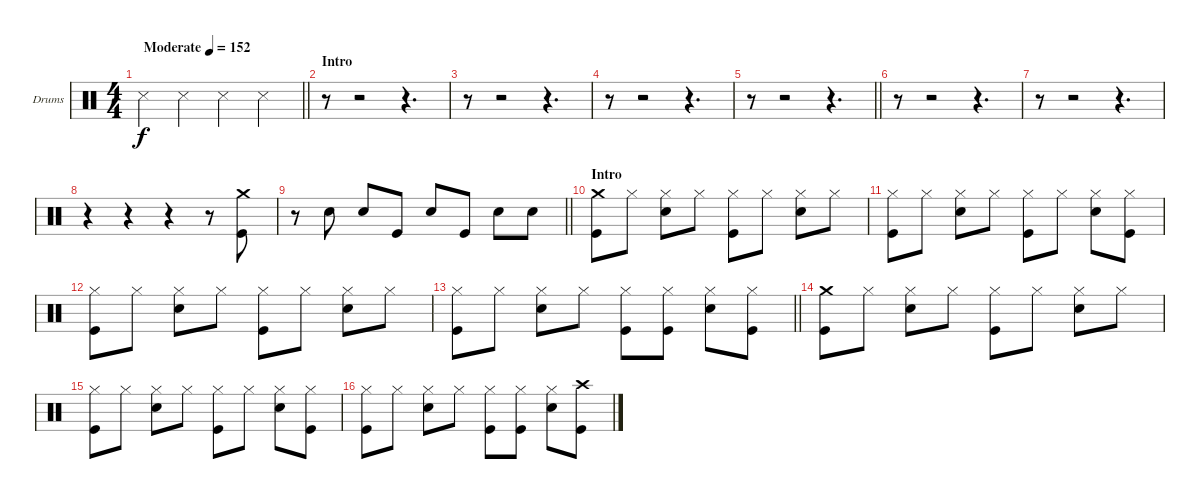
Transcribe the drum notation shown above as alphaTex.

\bracketExtendMode groupsimilarinstruments
\firstSystemTrackNameOrientation horizontal
\otherSystemsTrackNameOrientation horizontal
\track ("Drumkit" "Drums") {instrument percussion}
\staff {score}
\articulation defaults
\ts (4 4)
\beaming (8 2 2 2 2)
\tempo (152 "Moderate")
\clef neutral
\barLineRight lightlight
\ks c "Snare (side stick) 3".4{dy f} "Snare (side stick) 3".4 "Snare (side stick) 3".4 "Snare (side stick) 3".4
|
\section ("" "Intro")
r.8 r.2 r.4{d} |
r.8 r.2 r.4{d} |
r.8 r.2 r.4{d} |
\barLineRight lightlight
r.8 r.2 r.4{d} |
r.8 r.2 r.4{d} |
r.8 r.2 r.4{d} |
r.4 r.4 r.4 r.8 ("Crash medium (hit)" "Kick (hit)").8 |
\barLineRight lightlight
r.8 "Snare (hit) 2".8 "Snare (hit) 2".8 "Kick (hit)".8 "Snare (hit) 2".8 "Kick (hit)".8 "Snare (hit) 2".8 "Snare (hit) 2".8 |
\section ("" "Intro")
("Crash medium (hit)" "Kick (hit)").8 "Hi-Hat (closed)".8 ("Hi-Hat (closed)" "Snare (hit) 2").8 "Hi-Hat (closed)".8 ("Hi-Hat (closed)" "Kick (hit)").8 "Hi-Hat (closed)".8 ("Hi-Hat (closed)" "Snare (hit) 2").8 "Hi-Hat (closed)".8 |
("Hi-Hat (closed)" "Kick (hit)").8 "Hi-Hat (closed)".8 ("Hi-Hat (closed)" "Snare (hit) 2").8 "Hi-Hat (closed)".8 ("Hi-Hat (closed)" "Kick (hit)").8 "Hi-Hat (closed)".8 ("Hi-Hat (closed)" "Snare (hit) 2").8 ("Hi-Hat (closed)" "Kick (hit)").8 |
("Hi-Hat (closed)" "Kick (hit)").8 "Hi-Hat (closed)".8 ("Hi-Hat (closed)" "Snare (hit) 2").8 "Hi-Hat (closed)".8 ("Hi-Hat (closed)" "Kick (hit)").8 "Hi-Hat (closed)".8 ("Hi-Hat (closed)" "Snare (hit) 2").8 "Hi-Hat (closed)".8 |
\barLineRight lightlight
("Hi-Hat (closed)" "Kick (hit)").8 "Hi-Hat (closed)".8 ("Hi-Hat (closed)" "Snare (hit) 2").8 "Hi-Hat (closed)".8 ("Hi-Hat (closed)" "Kick (hit)").8 ("Hi-Hat (closed)" "Kick (hit)").8 ("Hi-Hat (closed)" "Snare (hit) 2").8 ("Hi-Hat (closed)" "Kick (hit)").8 |
("Crash medium (hit)" "Kick (hit)").8 "Hi-Hat (closed)".8 ("Hi-Hat (closed)" "Snare (hit) 2").8 "Hi-Hat (closed)".8 ("Hi-Hat (closed)" "Kick (hit)").8 "Hi-Hat (closed)".8 ("Hi-Hat (closed)" "Snare (hit) 2").8 "Hi-Hat (closed)".8 |
("Hi-Hat (closed)" "Kick (hit)").8 "Hi-Hat (closed)".8 ("Hi-Hat (closed)" "Snare (hit) 2").8 "Hi-Hat (closed)".8 ("Hi-Hat (closed)" "Kick (hit)").8 "Hi-Hat (closed)".8 ("Hi-Hat (closed)" "Snare (hit) 2").8 ("Hi-Hat (closed)" "Kick (hit)").8 |
("Hi-Hat (closed)" "Kick (hit)").8 "Hi-Hat (closed)".8 ("Hi-Hat (closed)" "Snare (hit) 2").8 "Hi-Hat (closed)".8 ("Hi-Hat (closed)" "Kick (hit)").8 ("Hi-Hat (closed)" "Kick (hit)").8 ("Hi-Hat (closed)" "Snare (hit) 2").8 ("Crash high (hit)" "Kick (hit)").8
